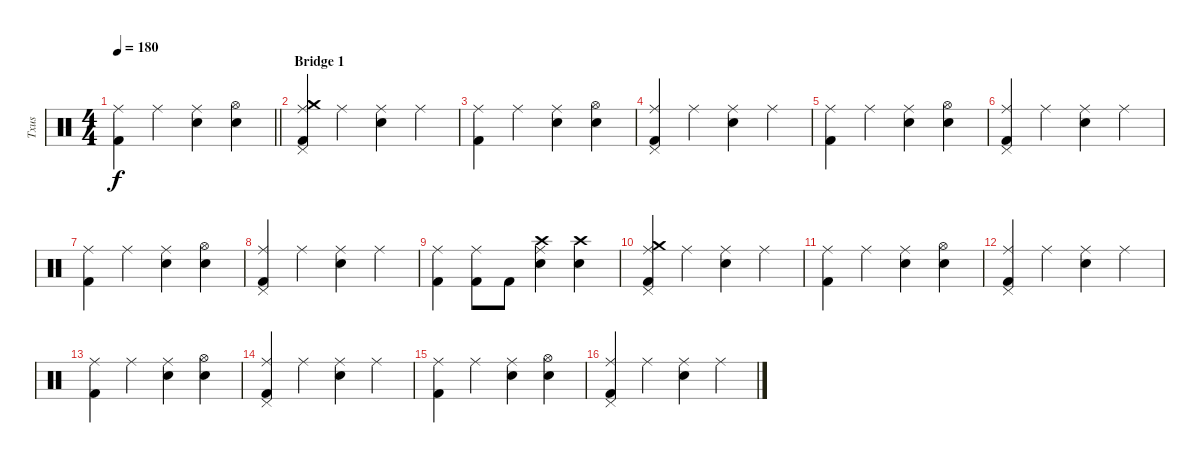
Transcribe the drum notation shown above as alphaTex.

\track ("Txus" "Txus") {instrument percussion}
\staff {score}
\articulation defaults
\ts (4 4)
\tempo 180
\clef neutral
\barLineRight lightlight
\ks c
("Ride (middle)" "Kick (hit) 2").4{dy f} "Ride (middle)".4 ("Ride (middle)" "Electric Snare (hit)").4 ("Hi-Hat (open)" "Electric Snare (hit)").4 |
\section ("" "Bridge 1")
("Crash medium (hit)" "Ride (middle)" "Pedal Hi-Hat (hit)" "Kick (hit) 2").4 "Ride (middle)".4 ("Ride (middle)" "Electric Snare (hit)").4 "Ride (middle)".4 |
("Ride (middle)" "Kick (hit) 2").4 "Ride (middle)".4 ("Ride (middle)" "Electric Snare (hit)").4 ("Hi-Hat (open)" "Electric Snare (hit)").4 |
("Ride (middle)" "Pedal Hi-Hat (hit)" "Kick (hit) 2").4 "Ride (middle)".4 ("Ride (middle)" "Electric Snare (hit)").4 "Ride (middle)".4 |
("Ride (middle)" "Kick (hit) 2").4 "Ride (middle)".4 ("Ride (middle)" "Electric Snare (hit)").4 ("Hi-Hat (open)" "Electric Snare (hit)").4 |
("Ride (middle)" "Pedal Hi-Hat (hit)" "Kick (hit) 2").4 "Ride (middle)".4 ("Ride (middle)" "Electric Snare (hit)").4 "Ride (middle)".4 |
("Ride (middle)" "Kick (hit) 2").4 "Ride (middle)".4 ("Ride (middle)" "Electric Snare (hit)").4 ("Hi-Hat (open)" "Electric Snare (hit)").4 |
("Ride (middle)" "Pedal Hi-Hat (hit)" "Kick (hit) 2").4 "Ride (middle)".4 ("Ride (middle)" "Electric Snare (hit)").4 "Ride (middle)".4 |
("Ride (middle)" "Kick (hit) 2").4 ("Ride (middle)" "Kick (hit) 2").8 "Kick (hit) 2".8 ("Crash high (hit)" "Ride (middle)" "Electric Snare (hit)").4 ("Crash high (hit)" "Electric Snare (hit)").4 |
("Crash medium (hit)" "Ride (middle)" "Pedal Hi-Hat (hit)" "Kick (hit) 2").4 "Ride (middle)".4 ("Ride (middle)" "Electric Snare (hit)").4 "Ride (middle)".4 |
("Ride (middle)" "Kick (hit) 2").4 "Ride (middle)".4 ("Ride (middle)" "Electric Snare (hit)").4 ("Hi-Hat (open)" "Electric Snare (hit)").4 |
("Ride (middle)" "Pedal Hi-Hat (hit)" "Kick (hit) 2").4 "Ride (middle)".4 ("Ride (middle)" "Electric Snare (hit)").4 "Ride (middle)".4 |
("Ride (middle)" "Kick (hit) 2").4 "Ride (middle)".4 ("Ride (middle)" "Electric Snare (hit)").4 ("Hi-Hat (open)" "Electric Snare (hit)").4 |
("Ride (middle)" "Pedal Hi-Hat (hit)" "Kick (hit) 2").4 "Ride (middle)".4 ("Ride (middle)" "Electric Snare (hit)").4 "Ride (middle)".4 |
("Ride (middle)" "Kick (hit) 2").4 "Ride (middle)".4 ("Ride (middle)" "Electric Snare (hit)").4 ("Hi-Hat (open)" "Electric Snare (hit)").4 |
("Ride (middle)" "Pedal Hi-Hat (hit)" "Kick (hit) 2").4 "Ride (middle)".4 ("Ride (middle)" "Electric Snare (hit)").4 "Ride (middle)".4
